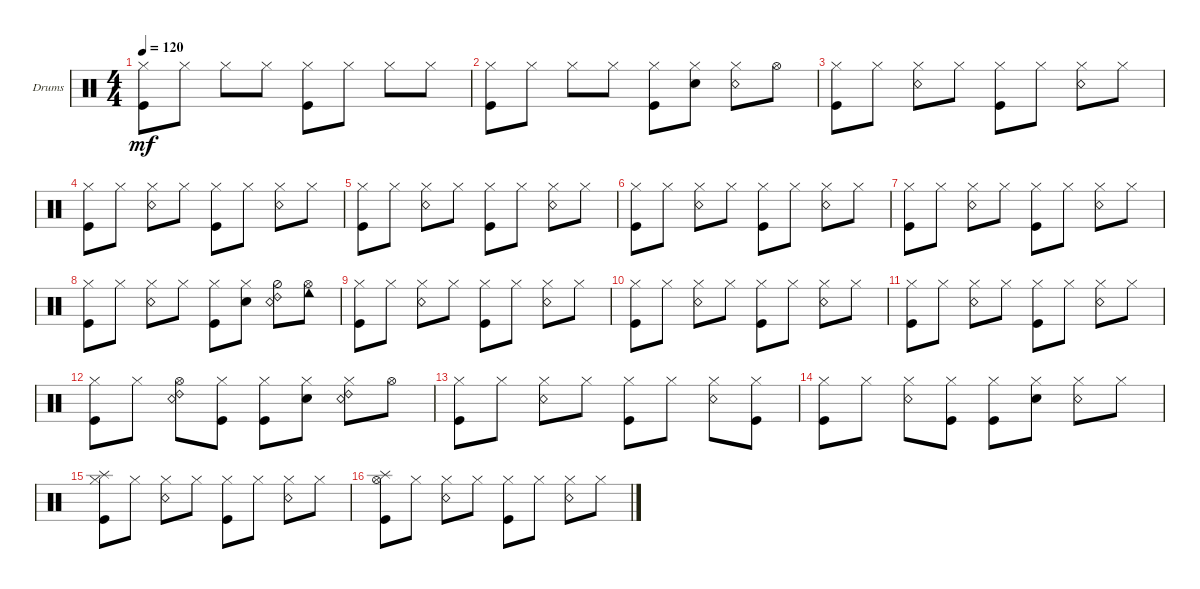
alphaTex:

\defaultSystemsLayout 4
\bracketExtendMode groupsimilarinstruments
\firstSystemTrackNameOrientation horizontal
\otherSystemsTrackNameOrientation horizontal
\track ("Drumkit" "Drums") {instrument percussion}
\staff {score}
\articulation defaults
\ts (4 4)
\tempo 120
\clef neutral
\ks c
("Hi-Hat (closed)" "Kick (hit)").8{dy mf} "Hi-Hat (closed)".8 "Hi-Hat (closed)".8 "Hi-Hat (closed)".8 ("Hi-Hat (closed)" "Kick (hit)").8 "Hi-Hat (closed)".8 "Hi-Hat (closed)".8 "Hi-Hat (closed)".8 |
("Hi-Hat (closed)" "Kick (hit)").8 "Hi-Hat (closed)".8 "Hi-Hat (closed)".8 "Hi-Hat (closed)".8 ("Hi-Hat (closed)" "Kick (hit)").8 ("Hi-Hat (closed)" "Snare (hit) 2").8 ("Hi-Hat (closed)" "Snare (rim shot)").8 "Hi-Hat (open)".8 |
("Hi-Hat (closed)" "Kick (hit)").8 "Hi-Hat (closed)".8 ("Hi-Hat (closed)" "Snare (rim shot)").8 "Hi-Hat (closed)".8 ("Hi-Hat (closed)" "Kick (hit)").8 "Hi-Hat (closed)".8 ("Hi-Hat (closed)" "Snare (rim shot)").8 "Hi-Hat (closed)".8 |
("Hi-Hat (closed)" "Kick (hit)").8 "Hi-Hat (closed)".8 ("Hi-Hat (closed)" "Snare (rim shot)").8 "Hi-Hat (closed)".8 ("Hi-Hat (closed)" "Kick (hit)").8 "Hi-Hat (closed)".8 ("Hi-Hat (closed)" "Snare (rim shot)").8 "Hi-Hat (closed)".8 |
("Hi-Hat (closed)" "Kick (hit)").8 "Hi-Hat (closed)".8 ("Hi-Hat (closed)" "Snare (rim shot)").8 "Hi-Hat (closed)".8 ("Hi-Hat (closed)" "Kick (hit)").8 "Hi-Hat (closed)".8 ("Hi-Hat (closed)" "Snare (rim shot)").8 "Hi-Hat (closed)".8 |
("Hi-Hat (closed)" "Kick (hit)").8 "Hi-Hat (closed)".8 ("Hi-Hat (closed)" "Snare (rim shot)").8 "Hi-Hat (closed)".8 ("Hi-Hat (closed)" "Kick (hit)").8 "Hi-Hat (closed)".8 ("Hi-Hat (closed)" "Snare (rim shot)").8 "Hi-Hat (closed)".8 |
("Hi-Hat (closed)" "Kick (hit)").8 "Hi-Hat (closed)".8 ("Hi-Hat (closed)" "Snare (rim shot)").8 "Hi-Hat (closed)".8 ("Hi-Hat (closed)" "Kick (hit)").8 "Hi-Hat (closed)".8 ("Hi-Hat (closed)" "Snare (rim shot)").8 "Hi-Hat (closed)".8 |
("Hi-Hat (closed)" "Kick (hit)").8 "Hi-Hat (closed)".8 ("Hi-Hat (closed)" "Snare (rim shot)").8 "Hi-Hat (closed)".8 ("Hi-Hat (closed)" "Kick (hit)").8 ("Hi-Hat (closed)" "Snare (hit) 2").8 ("Hi-Hat (half)" "Snare (rim shot)" "Ride (bell) 2").8 ("Hi-Hat (open)" "Cowbell low (hit)").8 |
("Hi-Hat (closed)" "Kick (hit)").8 "Hi-Hat (closed)".8 ("Hi-Hat (closed)" "Snare (rim shot)").8 "Hi-Hat (closed)".8 ("Hi-Hat (closed)" "Kick (hit)").8 "Hi-Hat (closed)".8 ("Hi-Hat (closed)" "Snare (rim shot)").8 "Hi-Hat (closed)".8 |
("Hi-Hat (closed)" "Kick (hit)").8 "Hi-Hat (closed)".8 ("Hi-Hat (closed)" "Snare (rim shot)").8 "Hi-Hat (closed)".8 ("Hi-Hat (closed)" "Kick (hit)").8 "Hi-Hat (closed)".8 ("Hi-Hat (closed)" "Snare (rim shot)").8 "Hi-Hat (closed)".8 |
("Hi-Hat (closed)" "Kick (hit)").8 "Hi-Hat (closed)".8 ("Hi-Hat (closed)" "Snare (rim shot)").8 "Hi-Hat (closed)".8 ("Hi-Hat (closed)" "Kick (hit)").8 "Hi-Hat (closed)".8 ("Hi-Hat (closed)" "Snare (rim shot)").8 "Hi-Hat (closed)".8 |
("Hi-Hat (closed)" "Kick (hit)").8 "Hi-Hat (closed)".8 ("Hi-Hat (open)" "Snare (rim shot)" "Ride (bell) 2").8 ("Hi-Hat (closed)" "Kick (hit)").8 ("Hi-Hat (closed)" "Kick (hit)").8 ("Hi-Hat (closed)" "Snare (hit) 2").8 ("Hi-Hat (closed)" "Snare (rim shot)" "Ride (bell) 2").8 "Hi-Hat (open)".8 |
("Hi-Hat (closed)" "Kick (hit)").8 "Hi-Hat (closed)".8 ("Hi-Hat (closed)" "Snare (rim shot)").8 "Hi-Hat (closed)".8 ("Hi-Hat (closed)" "Kick (hit)").8 "Hi-Hat (closed)".8 ("Hi-Hat (closed)" "Snare (rim shot)").8 ("Hi-Hat (closed)" "Kick (hit)").8 |
("Hi-Hat (closed)" "Kick (hit)").8 "Hi-Hat (closed)".8 ("Hi-Hat (closed)" "Snare (rim shot)").8 ("Hi-Hat (closed)" "Kick (hit)").8 ("Hi-Hat (closed)" "Kick (hit)").8 ("Hi-Hat (closed)" "Snare (hit) 2").8 ("Hi-Hat (closed)" "Snare (rim shot)").8 "Hi-Hat (closed)".8 |
("Hi-Hat (closed)" "Kick (hit)" "Splash (hit)").8 "Hi-Hat (closed)".8 ("Hi-Hat (closed)" "Snare (rim shot)").8 "Hi-Hat (closed)".8 ("Hi-Hat (closed)" "Kick (hit)").8 "Hi-Hat (closed)".8 ("Hi-Hat (closed)" "Snare (rim shot)").8 "Hi-Hat (closed)".8 |
("Hi-Hat (open)" "Kick (hit)" "Splash (hit)").8 "Hi-Hat (closed)".8 ("Hi-Hat (closed)" "Snare (rim shot)").8 "Hi-Hat (closed)".8 ("Hi-Hat (closed)" "Kick (hit)").8 "Hi-Hat (closed)".8 ("Hi-Hat (closed)" "Snare (rim shot)").8 "Hi-Hat (closed)".8
